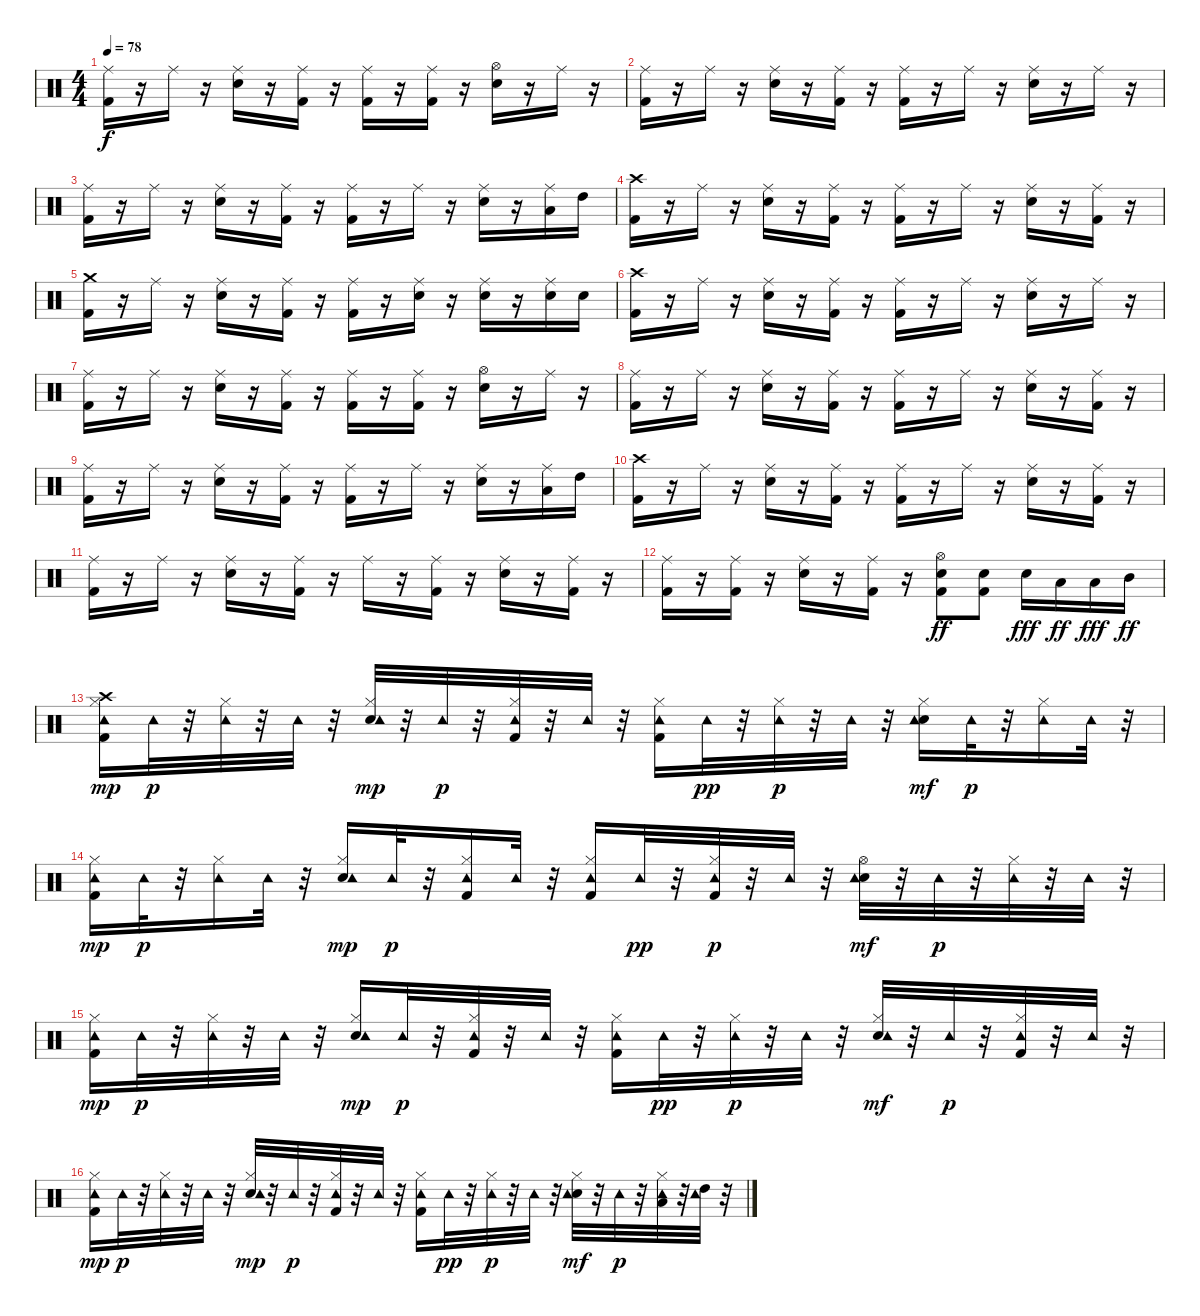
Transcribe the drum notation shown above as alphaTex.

\track "" {instrument percussion}
\staff {score}
\articulation defaults
\ts (4 4)
\tempo 78
\clef neutral
\ks c
("Ride (middle)" "Kick (hit) 2").16{dy f} r.16 "Ride (middle)".16 r.16 ("Ride (middle)" "Electric Snare (hit)").16 r.16 ("Ride (middle)" "Kick (hit) 2").16 r.16 ("Ride (middle)" "Kick (hit) 2").16 r.16 ("Ride (middle)" "Kick (hit) 2").16 r.16 ("Hi-Hat (open)" "Electric Snare (hit)").16 r.16 "Ride (middle)".16 r.16 |
("Ride (middle)" "Kick (hit) 2").16 r.16 "Ride (middle)".16 r.16 ("Ride (middle)" "Electric Snare (hit)").16 r.16 ("Ride (middle)" "Kick (hit) 2").16 r.16 ("Ride (middle)" "Kick (hit) 2").16 r.16 "Ride (middle)".16 r.16 ("Ride (middle)" "Electric Snare (hit)").16 r.16 "Ride (middle)".16 r.16 |
("Ride (middle)" "Kick (hit) 2").16 r.16 "Ride (middle)".16 r.16 ("Ride (middle)" "Electric Snare (hit)").16 r.16 ("Ride (middle)" "Kick (hit) 2").16 r.16 ("Ride (middle)" "Kick (hit) 2").16 r.16 "Ride (middle)".16 r.16 ("Ride (middle)" "Electric Snare (hit)").16 r.16 ("Ride (middle)" "Low Tom (hit)").16 "High Tom (hit)".16 |
("Crash high (hit)" "Kick (hit) 2").16 r.16 "Ride (middle)".16 r.16 ("Ride (middle)" "Electric Snare (hit)").16 r.16 ("Ride (middle)" "Kick (hit) 2").16 r.16 ("Ride (middle)" "Kick (hit) 2").16 r.16 "Ride (middle)".16 r.16 ("Ride (middle)" "Electric Snare (hit)").16 r.16 ("Ride (middle)" "Kick (hit) 2").16 r.16 |
("Crash medium (hit)" "Kick (hit) 2").16 r.16 "Ride (middle)".16 r.16 ("Ride (middle)" "Electric Snare (hit)").16 r.16 ("Ride (middle)" "Kick (hit) 2").16 r.16 ("Ride (middle)" "Kick (hit) 2").16 r.16 ("Ride (middle)" "Electric Snare (hit)").16 r.16 ("Ride (middle)" "Electric Snare (hit)").16 r.16 ("Ride (middle)" "Electric Snare (hit)").16 "Electric Snare (hit)".16 |
("Crash high (hit)" "Kick (hit) 2").16 r.16 "Ride (middle)".16 r.16 ("Ride (middle)" "Electric Snare (hit)").16 r.16 ("Ride (middle)" "Kick (hit) 2").16 r.16 ("Ride (middle)" "Kick (hit) 2").16 r.16 "Ride (middle)".16 r.16 ("Ride (middle)" "Electric Snare (hit)").16 r.16 "Ride (middle)".16 r.16 |
("Ride (middle)" "Kick (hit) 2").16 r.16 "Ride (middle)".16 r.16 ("Ride (middle)" "Electric Snare (hit)").16 r.16 ("Ride (middle)" "Kick (hit) 2").16 r.16 ("Ride (middle)" "Kick (hit) 2").16 r.16 ("Ride (middle)" "Kick (hit) 2").16 r.16 ("Hi-Hat (open)" "Electric Snare (hit)").16 r.16 "Ride (middle)".16 r.16 |
("Ride (middle)" "Kick (hit) 2").16 r.16 "Ride (middle)".16 r.16 ("Ride (middle)" "Electric Snare (hit)").16 r.16 ("Ride (middle)" "Kick (hit) 2").16 r.16 ("Ride (middle)" "Kick (hit) 2").16 r.16 "Ride (middle)".16 r.16 ("Ride (middle)" "Electric Snare (hit)").16 r.16 ("Ride (middle)" "Kick (hit) 2").16 r.16 |
("Ride (middle)" "Kick (hit) 2").16 r.16 "Ride (middle)".16 r.16 ("Ride (middle)" "Electric Snare (hit)").16 r.16 ("Ride (middle)" "Kick (hit) 2").16 r.16 ("Ride (middle)" "Kick (hit) 2").16 r.16 "Ride (middle)".16 r.16 ("Ride (middle)" "Electric Snare (hit)").16 r.16 ("Ride (middle)" "Low Tom (hit)").16 "High Tom (hit)".16 |
("Crash high (hit)" "Kick (hit) 2").16 r.16 "Ride (middle)".16 r.16 ("Ride (middle)" "Electric Snare (hit)").16 r.16 ("Ride (middle)" "Kick (hit) 2").16 r.16 ("Ride (middle)" "Kick (hit) 2").16 r.16 "Ride (middle)".16 r.16 ("Ride (middle)" "Electric Snare (hit)").16 r.16 ("Ride (middle)" "Kick (hit) 2").16 r.16 |
("Ride (middle)" "Kick (hit) 2").16 r.16 "Ride (middle)".16 r.16 ("Ride (middle)" "Electric Snare (hit)").16 r.16 ("Ride (middle)" "Kick (hit) 2").16 r.16 "Ride (middle)".16 r.16 ("Ride (middle)" "Kick (hit) 2").16 r.16 ("Ride (middle)" "Electric Snare (hit)").16 r.16 ("Ride (middle)" "Kick (hit) 2").16 r.16 |
("Ride (middle)" "Kick (hit) 2").16 r.16 ("Ride (middle)" "Kick (hit) 2").16 r.16 ("Ride (middle)" "Electric Snare (hit)").16 r.16 ("Ride (middle)" "Kick (hit) 2").16 r.16 ("Electric Snare (hit)" "Hi-Hat (open)" "Kick (hit) 2").8{dy ff} ("Electric Snare (hit)" "Kick (hit) 2").8 "Electric Snare (hit)".16{dy fff} "Low Tom (hit)".16{dy ff} "Low Tom (hit)".16{dy fff} "Mid Tom (hit)".16{dy ff} |
("Kick (hit) 2" "Hi-Hat (closed)" "Crash high (hit)" "Tambourine (hit)").16{dy mp} "Tambourine (hit)".32{dy p} r.32 ("Hi-Hat (closed)" "Tambourine (hit)").32 r.32 "Tambourine (hit)".32 r.32 ("Electric Snare (hit)" "Hi-Hat (closed)" "Tambourine (hit)").32{dy mp} r.32 "Tambourine (hit)".32{dy p} r.32 ("Kick (hit) 2" "Hi-Hat (closed)" "Tambourine (hit)").32 r.32 "Tambourine (hit)".32 r.32 ("Kick (hit) 2" "Hi-Hat (closed)" "Tambourine (hit)").16 "Tambourine (hit)".32{dy pp} r.32 ("Hi-Hat (closed)" "Tambourine (hit)").32{dy p} r.32 "Tambourine (hit)".32 r.32 ("Electric Snare (hit)" "Hi-Hat (closed)" "Tambourine (hit)").16{dy mf} "Tambourine (hit)".32{dy p} r.32 ("Hi-Hat (closed)" "Tambourine (hit)").16 "Tambourine (hit)".32 r.32 |
("Kick (hit) 2" "Hi-Hat (closed)" "Tambourine (hit)").16{dy mp} "Tambourine (hit)".32{dy p} r.32 ("Hi-Hat (closed)" "Tambourine (hit)").16 "Tambourine (hit)".32 r.32 ("Electric Snare (hit)" "Hi-Hat (closed)" "Tambourine (hit)").16{dy mp} "Tambourine (hit)".32{dy p} r.32 ("Kick (hit) 2" "Hi-Hat (closed)" "Tambourine (hit)").16 "Tambourine (hit)".32 r.32 ("Kick (hit) 2" "Hi-Hat (closed)" "Tambourine (hit)").16 "Tambourine (hit)".32{dy pp} r.32 ("Kick (hit) 2" "Hi-Hat (closed)" "Tambourine (hit)").32{dy p} r.32 "Tambourine (hit)".32 r.32 ("Electric Snare (hit)" "Hi-Hat (open)" "Tambourine (hit)").32{dy mf} r.32 "Tambourine (hit)".32{dy p} r.32 ("Hi-Hat (closed)" "Tambourine (hit)").32 r.32 "Tambourine (hit)".32 r.32 |
("Kick (hit) 2" "Hi-Hat (closed)" "Tambourine (hit)").16{dy mp} "Tambourine (hit)".32{dy p} r.32 ("Hi-Hat (closed)" "Tambourine (hit)").32 r.32 "Tambourine (hit)".32 r.32 ("Electric Snare (hit)" "Hi-Hat (closed)" "Tambourine (hit)").16{dy mp} "Tambourine (hit)".32{dy p} r.32 ("Kick (hit) 2" "Hi-Hat (closed)" "Tambourine (hit)").32 r.32 "Tambourine (hit)".32 r.32 ("Kick (hit) 2" "Hi-Hat (closed)" "Tambourine (hit)").16 "Tambourine (hit)".32{dy pp} r.32 ("Hi-Hat (closed)" "Tambourine (hit)").32{dy p} r.32 "Tambourine (hit)".32 r.32 ("Electric Snare (hit)" "Hi-Hat (closed)" "Tambourine (hit)").32{dy mf} r.32 "Tambourine (hit)".32{dy p} r.32 ("Kick (hit) 2" "Hi-Hat (closed)" "Tambourine (hit)").32 r.32 "Tambourine (hit)".32 r.32 |
("Kick (hit) 2" "Hi-Hat (closed)" "Tambourine (hit)").16{dy mp} "Tambourine (hit)".32{dy p} r.32 ("Hi-Hat (closed)" "Tambourine (hit)").32 r.32 "Tambourine (hit)".32 r.32 ("Electric Snare (hit)" "Hi-Hat (closed)" "Tambourine (hit)").32{dy mp} r.32 "Tambourine (hit)".32{dy p} r.32 ("Kick (hit) 2" "Hi-Hat (closed)" "Tambourine (hit)").32 r.32 "Tambourine (hit)".32 r.32 ("Kick (hit) 2" "Hi-Hat (closed)" "Tambourine (hit)").16 "Tambourine (hit)".32{dy pp} r.32 ("Hi-Hat (closed)" "Tambourine (hit)").32{dy p} r.32 "Tambourine (hit)".32 r.32 ("Electric Snare (hit)" "Hi-Hat (closed)" "Tambourine (hit)").32{dy mf} r.32 "Tambourine (hit)".32{dy p} r.32 ("Hi-Hat (closed)" "Low Tom (hit)" "Tambourine (hit)").32 r.32 ("High Tom (hit)" "Tambourine (hit)").32 r.32
